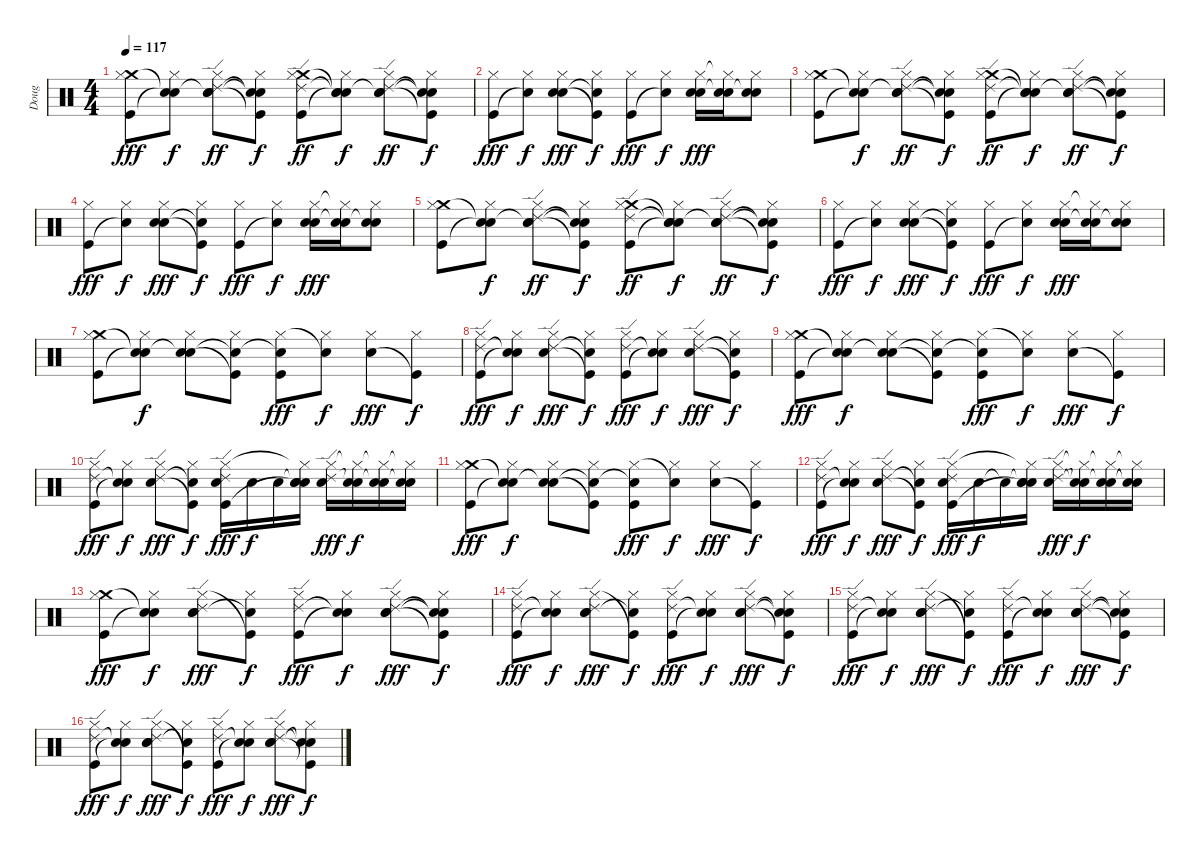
\track ("Doug" "Doug") {instrument percussion}
\staff {score}
\articulation defaults
\ts (4 4)
\tempo 117
\clef neutral
\ks c
("Crash medium (hit)" "Hi-Hat (closed)" "Kick (hit)").8{dy fff} ("Snare (hit)"{t} "Hi-Hat (closed)" "Snare (hit)"{t}).8{dy f} ("Snare (hit)"{t} "Hi-Hat (closed)" "Snare (hit) 2" "Ride (edge) 2").8{dy ff} ("Snare (hit)"{t} "Hi-Hat (closed)" "Kick (hit)"{t} "Snare (hit)"{t}).8{dy f} ("Crash medium (hit)" "Hi-Hat (closed)" "Kick (hit)" "Ride (edge) 2").8{dy ff} ("Snare (hit)"{t} "Hi-Hat (closed)" "Snare (hit)"{t} "Snare (hit)"{t}).8{dy f} ("Snare (hit)"{t} "Hi-Hat (closed)" "Snare (hit) 2" "Ride (edge) 2").8{dy ff} ("Snare (hit)"{t} "Hi-Hat (closed)" "Kick (hit)"{t} "Snare (hit)"{t}).8{dy f} |
("Hi-Hat (closed)" "Kick (hit)").8{dy fff} ("Hi-Hat (closed)" "Snare (hit)"{t}).8{dy f} ("Hand Clap (hit)" "Hi-Hat (closed)" "Snare (hit) 2").8{dy fff} ("Snare (hit)"{t} "Hi-Hat (closed)" "Kick (hit)"{t}).8{dy f} ("Hi-Hat (closed)" "Kick (hit)").8{dy fff} ("Hi-Hat (closed)" "Snare (hit)"{t}).8{dy f} ("Hand Clap (hit)" "Hi-Hat (closed)" "Snare (hit) 2").16{dy fff} ("Snare (hit)"{t} "Hi-Hat (closed)"{t} "Snare (hit) 2").16 ("Snare (hit)"{t} "Hi-Hat (closed)" "Snare (hit) 2").8 |
("Crash medium (hit)" "Hi-Hat (closed)" "Kick (hit)").8 ("Snare (hit)"{t} "Hi-Hat (closed)" "Snare (hit)"{t}).8{dy f} ("Snare (hit)"{t} "Hi-Hat (closed)" "Snare (hit) 2" "Ride (edge) 2").8{dy ff} ("Snare (hit)"{t} "Hi-Hat (closed)" "Kick (hit)"{t} "Snare (hit)"{t}).8{dy f} ("Crash medium (hit)" "Hi-Hat (closed)" "Kick (hit)" "Ride (edge) 2").8{dy ff} ("Snare (hit)"{t} "Hi-Hat (closed)" "Snare (hit)"{t} "Snare (hit)"{t}).8{dy f} ("Snare (hit)"{t} "Hi-Hat (closed)" "Snare (hit) 2" "Ride (edge) 2").8{dy ff} ("Snare (hit)"{t} "Hi-Hat (closed)" "Kick (hit)"{t} "Snare (hit)"{t}).8{dy f} |
("Hi-Hat (closed)" "Kick (hit)").8{dy fff} ("Hi-Hat (closed)" "Snare (hit)"{t}).8{dy f} ("Hand Clap (hit)" "Hi-Hat (closed)" "Snare (hit) 2").8{dy fff} ("Snare (hit)"{t} "Hi-Hat (closed)" "Kick (hit)"{t}).8{dy f} ("Hi-Hat (closed)" "Kick (hit)").8{dy fff} ("Hi-Hat (closed)" "Snare (hit)"{t}).8{dy f} ("Hand Clap (hit)" "Hi-Hat (closed)" "Snare (hit) 2").16{dy fff} ("Snare (hit)"{t} "Hi-Hat (closed)"{t} "Snare (hit) 2").16 ("Snare (hit)"{t} "Hi-Hat (closed)" "Snare (hit) 2").8 |
("Crash medium (hit)" "Hi-Hat (closed)" "Kick (hit)").8 ("Snare (hit)"{t} "Hi-Hat (closed)" "Snare (hit)"{t}).8{dy f} ("Snare (hit)"{t} "Hi-Hat (closed)" "Snare (hit) 2" "Ride (edge) 2").8{dy ff} ("Snare (hit)"{t} "Hi-Hat (closed)" "Kick (hit)"{t} "Snare (hit)"{t}).8{dy f} ("Crash medium (hit)" "Hi-Hat (closed)" "Kick (hit)" "Ride (edge) 2").8{dy ff} ("Snare (hit)"{t} "Hi-Hat (closed)" "Snare (hit)"{t} "Snare (hit)"{t}).8{dy f} ("Snare (hit)"{t} "Hi-Hat (closed)" "Snare (hit) 2" "Ride (edge) 2").8{dy ff} ("Snare (hit)"{t} "Hi-Hat (closed)" "Kick (hit)"{t} "Snare (hit)"{t}).8{dy f} |
("Hi-Hat (closed)" "Kick (hit)").8{dy fff} ("Hi-Hat (closed)" "Snare (hit)"{t}).8{dy f} ("Hand Clap (hit)" "Hi-Hat (closed)" "Snare (hit) 2").8{dy fff} ("Snare (hit)"{t} "Hi-Hat (closed)" "Kick (hit)"{t}).8{dy f} ("Hi-Hat (closed)" "Kick (hit)").8{dy fff} ("Hi-Hat (closed)" "Snare (hit)"{t}).8{dy f} ("Hand Clap (hit)" "Hi-Hat (closed)" "Snare (hit) 2").16{dy fff} ("Snare (hit)"{t} "Hi-Hat (closed)"{t} "Snare (hit) 2").16 ("Snare (hit)"{t} "Hi-Hat (closed)" "Snare (hit) 2").8 |
("Crash medium (hit)" "Hi-Hat (closed)" "Kick (hit)").8 ("Snare (hit)"{t} "Hi-Hat (closed)" "Snare (hit)"{t}).8{dy f} ("Snare (hit)"{t} "Hi-Hat (closed)" "Snare (hit) 2").8 ("Snare (hit)"{t} "Hi-Hat (closed)" "Kick (hit)"{t}).8 ("Snare (hit)"{t} "Hi-Hat (closed)" "Kick (hit)").8{dy fff} ("Hi-Hat (closed)" "Snare (hit)"{t}).8{dy f} ("Hi-Hat (closed)" "Snare (hit) 2").8{dy fff} ("Hi-Hat (closed)" "Kick (hit)"{t}).8{dy f} |
("Ride (edge) 2" "Hi-Hat (closed)" "Kick (hit)").8{dy fff} ("Snare (hit)"{t} "Hi-Hat (closed)" "Snare (hit)"{t}).8{dy f} ("Ride (edge) 2" "Hi-Hat (closed)" "Snare (hit) 2").8{dy fff} ("Snare (hit)"{t} "Hi-Hat (closed)" "Kick (hit)"{t}).8{dy f} ("Ride (edge) 2" "Hi-Hat (closed)" "Kick (hit)").8{dy fff} ("Snare (hit)"{t} "Hi-Hat (closed)" "Snare (hit)"{t}).8{dy f} ("Ride (edge) 2" "Hi-Hat (closed)" "Snare (hit) 2").8{dy fff} ("Snare (hit)"{t} "Hi-Hat (closed)" "Kick (hit)"{t}).8{dy f} |
("Crash medium (hit)" "Hi-Hat (closed)" "Kick (hit)").8{dy fff} ("Snare (hit)"{t} "Hi-Hat (closed)" "Snare (hit)"{t}).8{dy f} ("Snare (hit)"{t} "Hi-Hat (closed)" "Snare (hit) 2").8 ("Snare (hit)"{t} "Hi-Hat (closed)" "Kick (hit)"{t}).8 ("Snare (hit)"{t} "Hi-Hat (closed)" "Kick (hit)").8{dy fff} ("Hi-Hat (closed)" "Snare (hit)"{t}).8{dy f} ("Hi-Hat (closed)" "Snare (hit) 2").8{dy fff} ("Hi-Hat (closed)" "Kick (hit)"{t}).8{dy f} |
("Ride (edge) 2" "Hi-Hat (closed)" "Kick (hit)").8{dy fff} ("Snare (hit)"{t} "Hi-Hat (closed)" "Snare (hit)"{t}).8{dy f} ("Ride (edge) 2" "Hi-Hat (closed)" "Snare (hit) 2").8{dy fff} ("Snare (hit)"{t} "Hi-Hat (closed)" "Kick (hit)"{t}).8{dy f} ("Ride (edge) 2" "Hi-Hat (closed)" "Snare (hit) 2" "Kick (hit)").16{dy fff} "Snare (hit) 2".16{dy f} "Snare (hit) 2".16 ("Snare (hit)"{t} "Hi-Hat (closed)"{t} "Snare (hit) 2" "Snare (hit)"{t}).16 ("Ride (edge) 2" "Hi-Hat (closed)" "Snare (hit) 2").16{dy fff} ("Snare (hit)"{t} "Hi-Hat (closed)"{t} "Snare (hit) 2").16{dy f} ("Snare (hit)"{t} "Hi-Hat (closed)"{t} "Snare (hit) 2").16 ("Snare (hit)"{t} "Hi-Hat (closed)"{t} "Snare (hit) 2").16 |
("Crash medium (hit)" "Hi-Hat (closed)" "Kick (hit)").8{dy fff} ("Snare (hit)"{t} "Hi-Hat (closed)" "Snare (hit)"{t}).8{dy f} ("Snare (hit)"{t} "Hi-Hat (closed)" "Snare (hit) 2").8 ("Snare (hit)"{t} "Hi-Hat (closed)" "Kick (hit)"{t}).8 ("Snare (hit)"{t} "Hi-Hat (closed)" "Kick (hit)").8{dy fff} ("Hi-Hat (closed)" "Snare (hit)"{t}).8{dy f} ("Hi-Hat (closed)" "Snare (hit) 2").8{dy fff} ("Hi-Hat (closed)" "Kick (hit)"{t}).8{dy f} |
("Ride (edge) 2" "Hi-Hat (closed)" "Kick (hit)").8{dy fff} ("Snare (hit)"{t} "Hi-Hat (closed)" "Snare (hit)"{t}).8{dy f} ("Ride (edge) 2" "Hi-Hat (closed)" "Snare (hit) 2").8{dy fff} ("Snare (hit)"{t} "Hi-Hat (closed)" "Kick (hit)"{t}).8{dy f} ("Ride (edge) 2" "Hi-Hat (closed)" "Snare (hit) 2" "Kick (hit)").16{dy fff} "Snare (hit) 2".16{dy f} "Snare (hit) 2"{t}.16 ("Snare (hit)"{t} "Hi-Hat (closed)"{t} "Snare (hit) 2" "Snare (hit)"{t}).16 ("Ride (edge) 2" "Hi-Hat (closed)" "Snare (hit) 2").16{dy fff} ("Snare (hit)"{t} "Hi-Hat (closed)"{t} "Snare (hit) 2"{t}).16{dy f} ("Snare (hit)"{t} "Hi-Hat (closed)"{t} "Snare (hit) 2").16 ("Snare (hit)"{t} "Hi-Hat (closed)"{t} "Snare (hit) 2"{t}).16 |
("Crash medium (hit)" "Hi-Hat (closed)" "Kick (hit)").8{dy fff} ("Snare (hit)"{t} "Hi-Hat (closed)" "Snare (hit)"{t}).8{dy f} ("Ride (edge) 2" "Hi-Hat (closed)" "Snare (hit) 2" "Hand Clap (hit)").8{dy fff} ("Hi-Hat (closed)" "Kick (hit)"{t} "Snare (hit)"{t}).8{dy f} ("Ride (edge) 2" "Hi-Hat (closed)" "Kick (hit)").8{dy fff} ("Snare (hit)"{t} "Hi-Hat (closed)" "Snare (hit)"{t}).8{dy f} ("Ride (edge) 2" "Hi-Hat (closed)" "Snare (hit) 2" "Hand Clap (hit)").8{dy fff} ("Snare (hit)"{t} "Hi-Hat (closed)" "Kick (hit)"{t} "Snare (hit)"{t}).8{dy f} |
("Ride (edge) 2" "Hi-Hat (closed)" "Kick (hit)").8{dy fff} ("Snare (hit)"{t} "Hi-Hat (closed)" "Snare (hit)"{t}).8{dy f} ("Ride (edge) 2" "Hi-Hat (closed)" "Snare (hit) 2" "Hand Clap (hit)").8{dy fff} ("Hi-Hat (closed)" "Kick (hit)"{t} "Snare (hit)"{t}).8{dy f} ("Ride (edge) 2" "Hi-Hat (closed)" "Kick (hit)").8{dy fff} ("Snare (hit)"{t} "Hi-Hat (closed)" "Snare (hit)"{t}).8{dy f} ("Ride (edge) 2" "Hi-Hat (closed)" "Snare (hit) 2" "Hand Clap (hit)").8{dy fff} ("Snare (hit)"{t} "Hi-Hat (closed)" "Kick (hit)"{t} "Snare (hit)"{t}).8{dy f} |
("Ride (edge) 2" "Hi-Hat (closed)" "Kick (hit)").8{dy fff} ("Snare (hit)"{t} "Hi-Hat (closed)" "Snare (hit)"{t}).8{dy f} ("Ride (edge) 2" "Hi-Hat (closed)" "Snare (hit) 2" "Hand Clap (hit)").8{dy fff} ("Hi-Hat (closed)" "Kick (hit)"{t} "Snare (hit)"{t}).8{dy f} ("Ride (edge) 2" "Hi-Hat (closed)" "Kick (hit)").8{dy fff} ("Snare (hit)"{t} "Hi-Hat (closed)" "Snare (hit)"{t}).8{dy f} ("Ride (edge) 2" "Hi-Hat (closed)" "Snare (hit) 2" "Hand Clap (hit)").8{dy fff} ("Snare (hit)"{t} "Hi-Hat (closed)" "Kick (hit)"{t} "Snare (hit)"{t}).8{dy f} |
("Ride (edge) 2" "Hi-Hat (closed)" "Kick (hit)").8{dy fff} ("Snare (hit)"{t} "Hi-Hat (closed)" "Snare (hit)"{t}).8{dy f} ("Ride (edge) 2" "Hi-Hat (closed)" "Snare (hit) 2" "Hand Clap (hit)").8{dy fff} ("Hi-Hat (closed)" "Kick (hit)"{t} "Snare (hit)"{t}).8{dy f} ("Ride (edge) 2" "Hi-Hat (closed)" "Kick (hit)").8{dy fff} ("Snare (hit)"{t} "Hi-Hat (closed)" "Snare (hit)"{t}).8{dy f} ("Ride (edge) 2" "Hi-Hat (closed)" "Snare (hit) 2" "Hand Clap (hit)").8{dy fff} ("Snare (hit)"{t} "Hi-Hat (closed)" "Kick (hit)"{t} "Snare (hit)"{t}).8{dy f}
